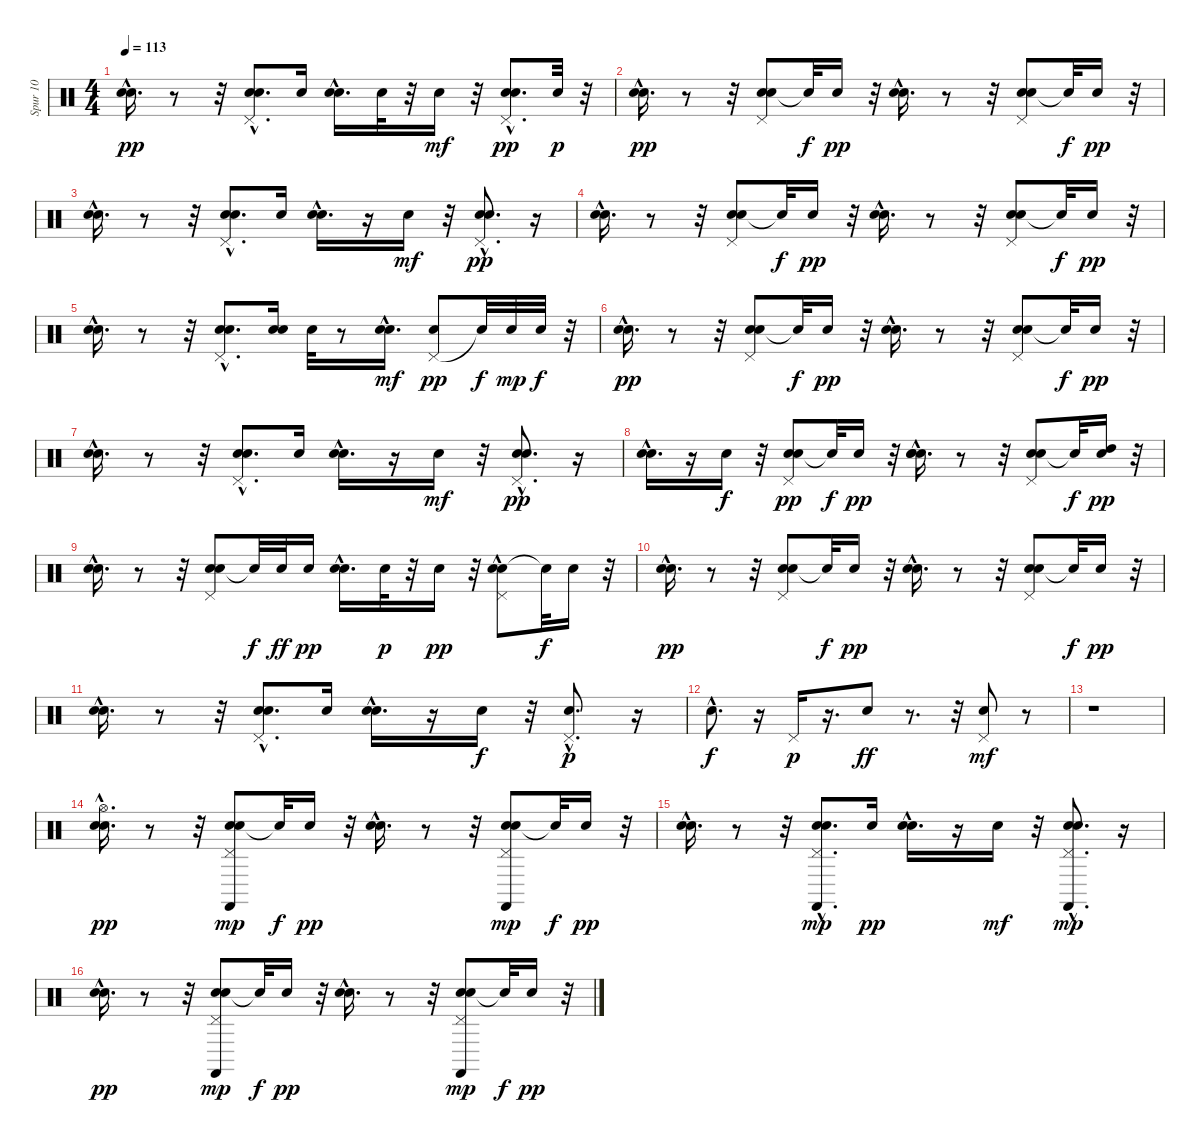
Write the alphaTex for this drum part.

\track ("Spur 10" "Spur 10") {instrument percussion}
\staff {score}
\articulation defaults
\ts (4 4)
\tempo 113
\clef neutral
\ks c
("Snare (hit) 2"{hac} "Electric Snare (hit)").16{d dy pp} r.8 r.32 ("Snare (hit) 2" "Pedal Hi-Hat (hit)"{hac} "Electric Snare (hit)").8{d} "Snare (hit) 2".16 ("Snare (hit) 2"{hac} "Electric Snare (hit)").16{d} "Snare (hit) 2".32 r.32 "Snare (hit) 2".16{dy mf} r.32 ("Snare (hit) 2"{hac} "Pedal Hi-Hat (hit)"{hac} "Electric Snare (hit)").8{d dy pp} "Snare (hit) 2".32{dy p} r.32 |
("Snare (hit) 2"{hac} "Electric Snare (hit)").16{d dy pp} r.8 r.32 ("Snare (hit) 2" "Pedal Hi-Hat (hit)" "Electric Snare (hit)").8 "Snare (hit)"{t}.32{dy f} "Snare (hit) 2".16{dy pp} r.32 ("Snare (hit) 2"{hac} "Electric Snare (hit)").16{d} r.8 r.32 ("Snare (hit) 2" "Pedal Hi-Hat (hit)" "Electric Snare (hit)").8 "Snare (hit)"{t}.32{dy f} "Snare (hit) 2".16{dy pp} r.32 |
("Snare (hit) 2"{hac} "Electric Snare (hit)").16{d} r.8 r.32 ("Snare (hit) 2" "Pedal Hi-Hat (hit)"{hac} "Electric Snare (hit)").8{d} "Snare (hit) 2".16 ("Snare (hit) 2"{hac} "Electric Snare (hit)").16{d} r.16 "Snare (hit) 2".16{dy mf} r.32 ("Snare (hit) 2"{hac} "Pedal Hi-Hat (hit)"{hac} "Electric Snare (hit)").8{d dy pp} r.16 |
("Snare (hit) 2"{hac} "Electric Snare (hit)").16{d} r.8 r.32 ("Snare (hit) 2" "Pedal Hi-Hat (hit)" "Electric Snare (hit)").8 "Snare (hit)"{t}.32{dy f} "Snare (hit) 2".16{dy pp} r.32 ("Snare (hit) 2"{hac} "Electric Snare (hit)").16{d} r.8 r.32 ("Snare (hit) 2" "Pedal Hi-Hat (hit)" "Electric Snare (hit)").8 "Snare (hit)"{t}.32{dy f} "Snare (hit) 2".16{dy pp} r.32 |
("Snare (hit) 2"{hac} "Electric Snare (hit)").16{d} r.8 r.32 ("Snare (hit) 2" "Pedal Hi-Hat (hit)"{hac} "Electric Snare (hit)").8{d} ("Hand Clap (hit)" "Snare (hit) 2").16 "Electric Snare (hit)".32 r.8 ("Snare (hit) 2"{hac} "Snare (hit) 2"{hac}).16{d dy mf} ("Pedal Hi-Hat (hit)" "Electric Snare (hit)").8{dy pp} "Snare (hit)"{t}.32{dy f} "Snare (hit) 2".32{dy mp} "Snare (hit) 2".32{dy f} r.32 |
("Snare (hit) 2"{hac} "Electric Snare (hit)").16{d dy pp} r.8 r.32 ("Snare (hit) 2" "Pedal Hi-Hat (hit)" "Electric Snare (hit)").8 "Snare (hit)"{t}.32{dy f} "Snare (hit) 2".16{dy pp} r.32 ("Snare (hit) 2"{hac} "Electric Snare (hit)").16{d} r.8 r.32 ("Snare (hit) 2" "Pedal Hi-Hat (hit)" "Electric Snare (hit)").8 "Snare (hit)"{t}.32{dy f} "Snare (hit) 2".16{dy pp} r.32 |
("Snare (hit) 2"{hac} "Electric Snare (hit)").16{d} r.8 r.32 ("Snare (hit) 2" "Pedal Hi-Hat (hit)"{hac} "Electric Snare (hit)").8{d} "Snare (hit) 2".16 ("Snare (hit) 2"{hac} "Electric Snare (hit)").16{d} r.16 "Snare (hit) 2".16{dy mf} r.32 ("Snare (hit) 2"{hac} "Pedal Hi-Hat (hit)"{hac} "Electric Snare (hit)").8{d dy pp} r.16 |
("Snare (hit) 2"{hac} "Electric Snare (hit)").16{d} r.16 "Hand Clap (hit)".16{dy f} r.32 ("Snare (hit) 2" "Pedal Hi-Hat (hit)" "Electric Snare (hit)").8{dy pp} "Snare (hit)"{t}.32{dy f} "Snare (hit) 2".16{dy pp} r.32 ("Hand Clap (hit)" "Snare (hit) 2"{hac} "Electric Snare (hit)").16{d} r.8 r.32 ("Snare (hit) 2" "Pedal Hi-Hat (hit)" "Electric Snare (hit)").8 "Snare (hit)"{t}.32{dy f} ("High Tom (hit)" "Snare (hit) 2").16{dy pp} r.32 |
("Snare (hit) 2"{hac} "Electric Snare (hit)").16{d} r.8 r.32 ("Snare (hit) 2" "Pedal Hi-Hat (hit)" "Electric Snare (hit)").8 "Snare (hit)"{t}.32{dy f} "Hand Clap (hit)".32{dy ff} "Snare (hit) 2".16{dy pp} ("Snare (hit) 2"{hac} "Electric Snare (hit)").16{d} "Snare (hit) 2".32{dy p} r.32 "Snare (hit) 2".16{dy pp} r.32 ("Hand Clap (hit)"{hac} "Pedal Hi-Hat (hit)" "Electric Snare (hit)").8 "Snare (hit)"{t}.32{dy f} "Hand Clap (hit)".16 r.32 |
("Snare (hit) 2"{hac} "Electric Snare (hit)").16{d dy pp} r.8 r.32 ("Snare (hit) 2" "Pedal Hi-Hat (hit)" "Electric Snare (hit)").8 "Snare (hit)"{t}.32{dy f} "Snare (hit) 2".16{dy pp} r.32 ("Snare (hit) 2"{hac} "Electric Snare (hit)").16{d} r.8 r.32 ("Snare (hit) 2" "Pedal Hi-Hat (hit)" "Electric Snare (hit)").8 "Snare (hit)"{t}.32{dy f} "Snare (hit) 2".16{dy pp} r.32 |
("Snare (hit) 2"{hac} "Electric Snare (hit)").16{d} r.8 r.32 ("Snare (hit) 2" "Pedal Hi-Hat (hit)"{hac} "Electric Snare (hit)").8{d} "Snare (hit) 2".16 ("Snare (hit) 2"{hac} "Electric Snare (hit)").16{d} r.16 "Hand Clap (hit)".16{dy f} r.32 ("Snare (hit) 2"{hac} "Pedal Hi-Hat (hit)"{hac}).8{d dy p} r.16 |
"Hand Clap (hit)"{hac}.8{d dy f} r.16 "Pedal Hi-Hat (hit)".16{dy p} r.16{d} "Snare (hit) 2".8{dy ff} r.8{d} r.32 ("Pedal Hi-Hat (hit)" "Hand Clap (hit)").8{dy mf} r.8 |
r.1 |
("Hi-Hat (open)" "Snare (hit) 2"{hac} "Electric Snare (hit)").16{d dy pp} r.8 r.32 ("Snare (hit) 2" "Pedal Hi-Hat (hit)" "Electric Snare (hit)" "Castanets (hit)").8{dy mp} "Snare (hit)"{t}.32{dy f} "Snare (hit) 2".16{dy pp} r.32 ("Snare (hit) 2"{hac} "Electric Snare (hit)").16{d} r.8 r.32 ("Snare (hit) 2" "Pedal Hi-Hat (hit)" "Electric Snare (hit)" "Castanets (hit)").8{dy mp} "Snare (hit)"{t}.32{dy f} "Snare (hit) 2".16{dy pp} r.32 |
("Snare (hit) 2"{hac} "Electric Snare (hit)").16{d} r.8 r.32 ("Snare (hit) 2" "Pedal Hi-Hat (hit)"{hac} "Electric Snare (hit)" "Castanets (hit)").8{d dy mp} "Snare (hit) 2".16{dy pp} ("Snare (hit) 2"{hac} "Electric Snare (hit)").16{d} r.16 "Snare (hit) 2".16{dy mf} r.32 ("Snare (hit) 2"{hac} "Pedal Hi-Hat (hit)"{hac} "Electric Snare (hit)" "Castanets (hit)").8{d dy mp} r.16 |
("Snare (hit) 2"{hac} "Electric Snare (hit)").16{d dy pp} r.8 r.32 ("Snare (hit) 2" "Pedal Hi-Hat (hit)" "Electric Snare (hit)" "Castanets (hit)").8{dy mp} "Snare (hit)"{t}.32{dy f} "Snare (hit) 2".16{dy pp} r.32 ("Snare (hit) 2"{hac} "Electric Snare (hit)").16{d} r.8 r.32 ("Snare (hit) 2" "Pedal Hi-Hat (hit)" "Electric Snare (hit)" "Castanets (hit)").8{dy mp} "Snare (hit)"{t}.32{dy f} "Snare (hit) 2".16{dy pp} r.32
